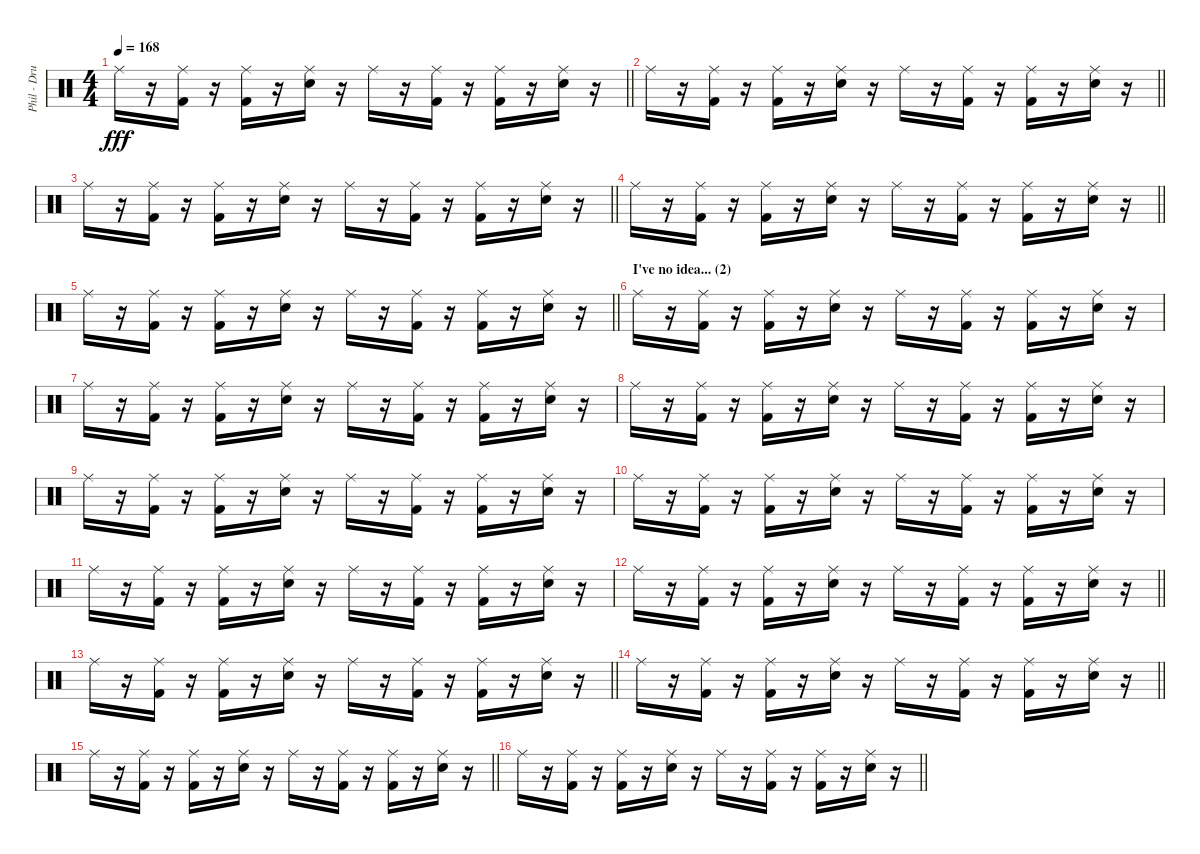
\track ("Phil - Drums" "Phil - Dru") {instrument percussion}
\staff {score}
\articulation defaults
\ts (4 4)
\tempo 168
\clef neutral
\barLineRight lightlight
\ks c "Ride (middle)".16{dy fff}
r.16 ("Ride (middle)" "Kick (hit) 2").16 r.16 ("Ride (middle)" "Kick (hit) 2").16 r.16 ("Ride (middle)" "Electric Snare (hit)").16 r.16 "Ride (middle)".16 r.16 ("Ride (middle)" "Kick (hit) 2").16 r.16 ("Ride (middle)" "Kick (hit) 2").16 r.16 ("Ride (middle)" "Electric Snare (hit)").16 r.16 |
\barLineRight lightlight "Ride (middle)".16
r.16 ("Ride (middle)" "Kick (hit) 2").16 r.16 ("Ride (middle)" "Kick (hit) 2").16 r.16 ("Ride (middle)" "Electric Snare (hit)").16 r.16 "Ride (middle)".16 r.16 ("Ride (middle)" "Kick (hit) 2").16 r.16 ("Ride (middle)" "Kick (hit) 2").16 r.16 ("Ride (middle)" "Electric Snare (hit)").16 r.16 |
\barLineRight lightlight "Ride (middle)".16
r.16 ("Ride (middle)" "Kick (hit) 2").16 r.16 ("Ride (middle)" "Kick (hit) 2").16 r.16 ("Ride (middle)" "Electric Snare (hit)").16 r.16 "Ride (middle)".16 r.16 ("Ride (middle)" "Kick (hit) 2").16 r.16 ("Ride (middle)" "Kick (hit) 2").16 r.16 ("Ride (middle)" "Electric Snare (hit)").16 r.16 |
\barLineRight lightlight "Ride (middle)".16
r.16 ("Ride (middle)" "Kick (hit) 2").16 r.16 ("Ride (middle)" "Kick (hit) 2").16 r.16 ("Ride (middle)" "Electric Snare (hit)").16 r.16 "Ride (middle)".16 r.16 ("Ride (middle)" "Kick (hit) 2").16 r.16 ("Ride (middle)" "Kick (hit) 2").16 r.16 ("Ride (middle)" "Electric Snare (hit)").16 r.16 |
\barLineRight lightlight "Ride (middle)".16
r.16 ("Ride (middle)" "Kick (hit) 2").16 r.16 ("Ride (middle)" "Kick (hit) 2").16 r.16 ("Ride (middle)" "Electric Snare (hit)").16 r.16 "Ride (middle)".16 r.16 ("Ride (middle)" "Kick (hit) 2").16 r.16 ("Ride (middle)" "Kick (hit) 2").16 r.16 ("Ride (middle)" "Electric Snare (hit)").16 r.16 |
\section ("" "I've no idea... (2)")
"Ride (middle)".16 r.16 ("Ride (middle)" "Kick (hit) 2").16 r.16 ("Ride (middle)" "Kick (hit) 2").16 r.16 ("Ride (middle)" "Electric Snare (hit)").16 r.16 "Ride (middle)".16 r.16 ("Ride (middle)" "Kick (hit) 2").16 r.16 ("Ride (middle)" "Kick (hit) 2").16 r.16 ("Ride (middle)" "Electric Snare (hit)").16 r.16 |
"Ride (middle)".16 r.16 ("Ride (middle)" "Kick (hit) 2").16 r.16 ("Ride (middle)" "Kick (hit) 2").16 r.16 ("Ride (middle)" "Electric Snare (hit)").16 r.16 "Ride (middle)".16 r.16 ("Ride (middle)" "Kick (hit) 2").16 r.16 ("Ride (middle)" "Kick (hit) 2").16 r.16 ("Ride (middle)" "Electric Snare (hit)").16 r.16 |
"Ride (middle)".16 r.16 ("Ride (middle)" "Kick (hit) 2").16 r.16 ("Ride (middle)" "Kick (hit) 2").16 r.16 ("Ride (middle)" "Electric Snare (hit)").16 r.16 "Ride (middle)".16 r.16 ("Ride (middle)" "Kick (hit) 2").16 r.16 ("Ride (middle)" "Kick (hit) 2").16 r.16 ("Ride (middle)" "Electric Snare (hit)").16 r.16 |
"Ride (middle)".16 r.16 ("Ride (middle)" "Kick (hit) 2").16 r.16 ("Ride (middle)" "Kick (hit) 2").16 r.16 ("Ride (middle)" "Electric Snare (hit)").16 r.16 "Ride (middle)".16 r.16 ("Ride (middle)" "Kick (hit) 2").16 r.16 ("Ride (middle)" "Kick (hit) 2").16 r.16 ("Ride (middle)" "Electric Snare (hit)").16 r.16 |
"Ride (middle)".16 r.16 ("Ride (middle)" "Kick (hit) 2").16 r.16 ("Ride (middle)" "Kick (hit) 2").16 r.16 ("Ride (middle)" "Electric Snare (hit)").16 r.16 "Ride (middle)".16 r.16 ("Ride (middle)" "Kick (hit) 2").16 r.16 ("Ride (middle)" "Kick (hit) 2").16 r.16 ("Ride (middle)" "Electric Snare (hit)").16 r.16 |
"Ride (middle)".16 r.16 ("Ride (middle)" "Kick (hit) 2").16 r.16 ("Ride (middle)" "Kick (hit) 2").16 r.16 ("Ride (middle)" "Electric Snare (hit)").16 r.16 "Ride (middle)".16 r.16 ("Ride (middle)" "Kick (hit) 2").16 r.16 ("Ride (middle)" "Kick (hit) 2").16 r.16 ("Ride (middle)" "Electric Snare (hit)").16 r.16 |
\barLineRight lightlight "Ride (middle)".16
r.16 ("Ride (middle)" "Kick (hit) 2").16 r.16 ("Ride (middle)" "Kick (hit) 2").16 r.16 ("Ride (middle)" "Electric Snare (hit)").16 r.16 "Ride (middle)".16 r.16 ("Ride (middle)" "Kick (hit) 2").16 r.16 ("Ride (middle)" "Kick (hit) 2").16 r.16 ("Ride (middle)" "Electric Snare (hit)").16 r.16 |
\barLineRight lightlight "Ride (middle)".16
r.16 ("Ride (middle)" "Kick (hit) 2").16 r.16 ("Ride (middle)" "Kick (hit) 2").16 r.16 ("Ride (middle)" "Electric Snare (hit)").16 r.16 "Ride (middle)".16 r.16 ("Ride (middle)" "Kick (hit) 2").16 r.16 ("Ride (middle)" "Kick (hit) 2").16 r.16 ("Ride (middle)" "Electric Snare (hit)").16 r.16 |
\barLineRight lightlight "Ride (middle)".16
r.16 ("Ride (middle)" "Kick (hit) 2").16 r.16 ("Ride (middle)" "Kick (hit) 2").16 r.16 ("Ride (middle)" "Electric Snare (hit)").16 r.16 "Ride (middle)".16 r.16 ("Ride (middle)" "Kick (hit) 2").16 r.16 ("Ride (middle)" "Kick (hit) 2").16 r.16 ("Ride (middle)" "Electric Snare (hit)").16 r.16 |
\barLineRight lightlight "Ride (middle)".16
r.16 ("Ride (middle)" "Kick (hit) 2").16 r.16 ("Ride (middle)" "Kick (hit) 2").16 r.16 ("Ride (middle)" "Electric Snare (hit)").16 r.16 "Ride (middle)".16 r.16 ("Ride (middle)" "Kick (hit) 2").16 r.16 ("Ride (middle)" "Kick (hit) 2").16 r.16 ("Ride (middle)" "Electric Snare (hit)").16 r.16 |
\barLineRight lightlight "Ride (middle)".16
r.16 ("Ride (middle)" "Kick (hit) 2").16 r.16 ("Ride (middle)" "Kick (hit) 2").16 r.16 ("Ride (middle)" "Electric Snare (hit)").16 r.16 "Ride (middle)".16 r.16 ("Ride (middle)" "Kick (hit) 2").16 r.16 ("Ride (middle)" "Kick (hit) 2").16 r.16 ("Ride (middle)" "Electric Snare (hit)").16 r.16
